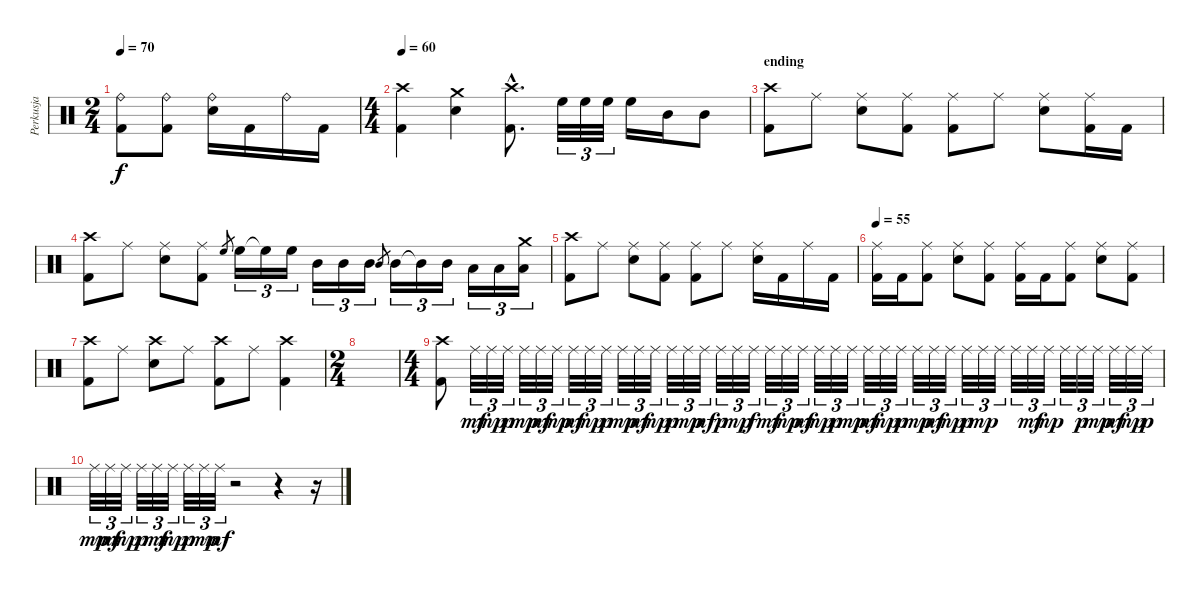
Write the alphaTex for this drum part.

\track ("Perkusja" "Perkusja") {instrument percussion}
\staff {score}
\articulation defaults
\ts (2 4)
\tempo 70
\clef neutral
\ks c
("Ride (bell)" "Kick (hit) 2").8{dy f} ("Ride (bell)" "Kick (hit) 2").8 ("Ride (bell)" "Snare (hit) 2").16 "Kick (hit) 2".16 "Ride (bell)".16 "Kick (hit) 2".16 |
\ts (4 4)
\tempo 60
("Crash high (hit)" "Kick (hit) 2").4 ("Crash medium (hit)" "Snare (hit) 2").4 ("Crash high (hit)"{hac} "Kick (hit) 2"{hac}).8{d} "High Floor Tom (hit)".32{tu (3 2)} "High Floor Tom (hit)".32{tu (3 2)} "High Floor Tom (hit)".32{tu (3 2)} "High Floor Tom (hit)".16 "Mid Tom (hit)".16 "Mid Tom (hit)".8 |
\section ("" "ending")
("Crash high (hit)" "Kick (hit) 2").8 "Ride (middle)".8 ("Ride (middle)" "Snare (hit) 2").8 ("Ride (middle)" "Kick (hit) 2").8 ("Ride (middle)" "Kick (hit) 2").8 "Ride (middle)".8 ("Ride (middle)" "Snare (hit) 2").8 ("Ride (middle)" "Kick (hit) 2").16 "Kick (hit) 2".16 |
("Crash high (hit)" "Kick (hit) 2").8 "Ride (middle)".8 ("Ride (middle)" "Snare (hit) 2").8 ("Ride (middle)" "Kick (hit) 2").8 "High Floor Tom (hit)".8{gr} "High Floor Tom (hit)".16{tu (3 2)} "High Floor Tom (hit)"{t}.16{tu (3 2)} "High Floor Tom (hit)".16{tu (3 2)} "Mid Tom (hit)".16{tu (3 2)} "Mid Tom (hit)".16{tu (3 2)} "Mid Tom (hit)".16{tu (3 2)} "Mid Tom (hit)".8{gr} "Mid Tom (hit)".16{tu (3 2)} "Mid Tom (hit)"{t}.16{tu (3 2)} "Mid Tom (hit)".16{tu (3 2)} "Low Tom (hit)".16{tu (3 2)} "Low Tom (hit)".16{tu (3 2)} ("Crash medium (hit)" "Low Tom (hit)").16{tu (3 2)} |
("Crash high (hit)" "Kick (hit) 2").8 "Ride (middle)".8 ("Ride (middle)" "Snare (hit) 2").8 ("Ride (middle)" "Kick (hit) 2").8 ("Ride (middle)" "Kick (hit) 2").8 "Ride (middle)".8 ("Ride (middle)" "Snare (hit) 2").16 "Kick (hit) 2".16 "Ride (middle)".16 "Kick (hit) 2".16 |
\tempo 55
("Ride (middle)" "Kick (hit) 2").16 "Kick (hit) 2".16 ("Ride (middle)" "Kick (hit) 2").8 ("Ride (middle)" "Snare (hit) 2").8 ("Ride (middle)" "Kick (hit) 2").8 ("Ride (middle)" "Kick (hit) 2").16 "Kick (hit) 2".16 ("Ride (middle)" "Kick (hit) 2").8 ("Ride (middle)" "Snare (hit) 2").8 ("Ride (middle)" "Kick (hit) 2").8 |
("Crash high (hit)" "Kick (hit) 2").8 "Ride (middle)".8 ("Crash high (hit)" "Snare (hit) 2").8 "Ride (middle)".8 ("Crash high (hit)" "Kick (hit) 2").8 "Ride (middle)".8 ("Crash high (hit)" "Kick (hit) 2").4 |
\ts (2 4)
|
\ts (4 4)
("Crash high (hit)" "Kick (hit) 2").8 "Ride (middle)".32{tu (3 2) dy mf} "Ride (middle)".32{tu (3 2) dy mp} "Ride (middle)".32{tu (3 2) dy p} "Ride (middle)".32{tu (3 2) dy mp} "Ride (middle)".32{tu (3 2) dy mf} "Ride (middle)".32{tu (3 2) dy mp} "Ride (middle)".32{tu (3 2) dy mf} "Ride (middle)".32{tu (3 2) dy mp} "Ride (middle)".32{tu (3 2) dy p} "Ride (middle)".32{tu (3 2) dy mp} "Ride (middle)".32{tu (3 2) dy mf} "Ride (middle)".32{tu (3 2) dy mp} "Ride (middle)".32{tu (3 2) dy p} "Ride (middle)".32{tu (3 2) dy mp} "Ride (middle)".32{tu (3 2) dy mf} "Ride (middle)".32{tu (3 2) dy p} "Ride (middle)".32{tu (3 2) dy mp} "Ride (middle)".32{tu (3 2) dy f} "Ride (middle)".32{tu (3 2) dy mf} "Ride (middle)".32{tu (3 2) dy mp} "Ride (middle)".32{tu (3 2) dy mf} "Ride (middle)".32{tu (3 2) dy mp} "Ride (middle)".32{tu (3 2) dy p} "Ride (middle)".32{tu (3 2) dy mp} "Ride (middle)".32{tu (3 2) dy mf} "Ride (middle)".32{tu (3 2) dy mp} "Ride (middle)".32{tu (3 2) dy p} "Ride (middle)".32{tu (3 2) dy mp} "Ride (middle)".32{tu (3 2) dy mf} "Ride (middle)".32{tu (3 2) dy mp} "Ride (middle)".32{tu (3 2) dy p} "Ride (middle)".32{tu (3 2) dy mp} "Ride (middle)".32{tu (3 2)} "Ride (middle)".32{tu (3 2)} "Ride (middle)".32{tu (3 2) dy mf} "Ride (middle)".32{tu (3 2) dy mp} "Ride (middle)".32{tu (3 2)} "Ride (middle)".32{tu (3 2) dy p} "Ride (middle)".32{tu (3 2) dy mp} "Ride (middle)".32{tu (3 2) dy mf} "Ride (middle)".32{tu (3 2) dy mp} "Ride (middle)".32{tu (3 2) dy p} |
"Ride (middle)".32{tu (3 2) dy mp} "Ride (middle)".32{tu (3 2) dy mf} "Ride (middle)".32{tu (3 2) dy mp} "Ride (middle)".32{tu (3 2) dy p} "Ride (middle)".32{tu (3 2) dy mf} "Ride (middle)".32{tu (3 2) dy mp} "Ride (middle)".32{tu (3 2) dy p} "Ride (middle)".32{tu (3 2) dy mp} "Ride (middle)".32{tu (3 2) dy mf} r.2 r.4 r.16
